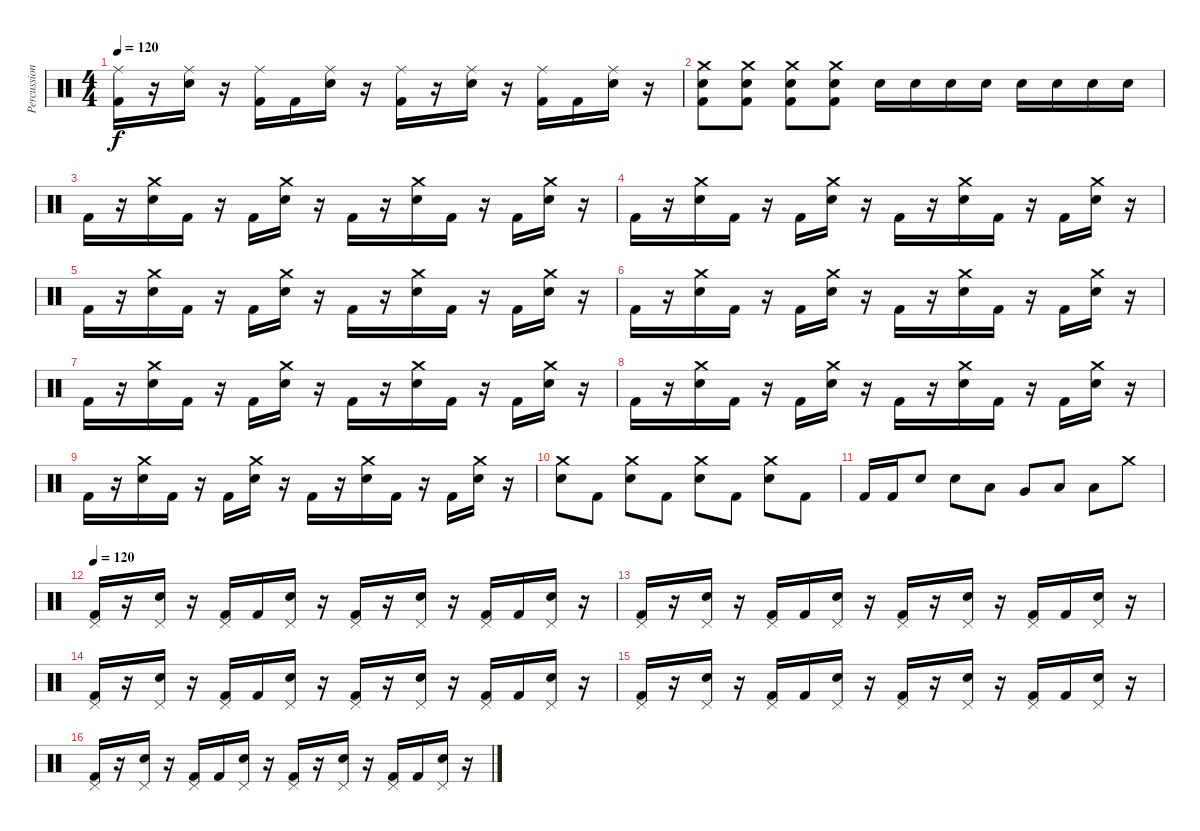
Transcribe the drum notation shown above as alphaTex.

\track ("Percussion" "Percussion") {instrument percussion}
\staff {score}
\articulation defaults
\ts (4 4)
\tempo 120
\clef neutral
\ks c
("Ride (middle)" "Kick (hit) 2").16{dy f} r.16 ("Ride (middle)" "Electric Snare (hit)").16 r.16 ("Ride (middle)" "Kick (hit) 2").16 "Kick (hit) 2".16 ("Ride (middle)" "Electric Snare (hit)").16 r.16 ("Ride (middle)" "Kick (hit) 2").16 r.16 ("Ride (middle)" "Electric Snare (hit)").16 r.16 ("Ride (middle)" "Kick (hit) 2").16 "Kick (hit) 2".16 ("Ride (middle)" "Electric Snare (hit)").16 r.16 |
("Crash medium (hit)" "Electric Snare (hit)" "Kick (hit) 2").8 ("Crash medium (hit)" "Electric Snare (hit)" "Kick (hit) 2").8 ("Crash medium (hit)" "Electric Snare (hit)" "Kick (hit) 2").8 ("Crash medium (hit)" "Electric Snare (hit)" "Kick (hit) 2").8 "Electric Snare (hit)".16 "Electric Snare (hit)".16 "Electric Snare (hit)".16 "Electric Snare (hit)".16 "Electric Snare (hit)".16 "Electric Snare (hit)".16 "Electric Snare (hit)".16 "Electric Snare (hit)".16 |
"Kick (hit) 2".16 r.16 ("Crash medium (hit)" "Electric Snare (hit)").16 "Kick (hit) 2".16 r.16 "Kick (hit) 2".16 ("Crash medium (hit)" "Electric Snare (hit)").16 r.16 "Kick (hit) 2".16 r.16 ("Crash medium (hit)" "Electric Snare (hit)").16 "Kick (hit) 2".16 r.16 "Kick (hit) 2".16 ("Crash medium (hit)" "Electric Snare (hit)").16 r.16 |
"Kick (hit) 2".16 r.16 ("Crash medium (hit)" "Electric Snare (hit)").16 "Kick (hit) 2".16 r.16 "Kick (hit) 2".16 ("Crash medium (hit)" "Electric Snare (hit)").16 r.16 "Kick (hit) 2".16 r.16 ("Crash medium (hit)" "Electric Snare (hit)").16 "Kick (hit) 2".16 r.16 "Kick (hit) 2".16 ("Crash medium (hit)" "Electric Snare (hit)").16 r.16 |
"Kick (hit) 2".16 r.16 ("Crash medium (hit)" "Electric Snare (hit)").16 "Kick (hit) 2".16 r.16 "Kick (hit) 2".16 ("Crash medium (hit)" "Electric Snare (hit)").16 r.16 "Kick (hit) 2".16 r.16 ("Crash medium (hit)" "Electric Snare (hit)").16 "Kick (hit) 2".16 r.16 "Kick (hit) 2".16 ("Crash medium (hit)" "Electric Snare (hit)").16 r.16 |
"Kick (hit) 2".16 r.16 ("Crash medium (hit)" "Electric Snare (hit)").16 "Kick (hit) 2".16 r.16 "Kick (hit) 2".16 ("Crash medium (hit)" "Electric Snare (hit)").16 r.16 "Kick (hit) 2".16 r.16 ("Crash medium (hit)" "Electric Snare (hit)").16 "Kick (hit) 2".16 r.16 "Kick (hit) 2".16 ("Crash medium (hit)" "Electric Snare (hit)").16 r.16 |
"Kick (hit) 2".16 r.16 ("Crash medium (hit)" "Electric Snare (hit)").16 "Kick (hit) 2".16 r.16 "Kick (hit) 2".16 ("Crash medium (hit)" "Electric Snare (hit)").16 r.16 "Kick (hit) 2".16 r.16 ("Crash medium (hit)" "Electric Snare (hit)").16 "Kick (hit) 2".16 r.16 "Kick (hit) 2".16 ("Crash medium (hit)" "Electric Snare (hit)").16 r.16 |
"Kick (hit) 2".16 r.16 ("Crash medium (hit)" "Electric Snare (hit)").16 "Kick (hit) 2".16 r.16 "Kick (hit) 2".16 ("Crash medium (hit)" "Electric Snare (hit)").16 r.16 "Kick (hit) 2".16 r.16 ("Crash medium (hit)" "Electric Snare (hit)").16 "Kick (hit) 2".16 r.16 "Kick (hit) 2".16 ("Crash medium (hit)" "Electric Snare (hit)").16 r.16 |
"Kick (hit) 2".16 r.16 ("Crash medium (hit)" "Electric Snare (hit)").16 "Kick (hit) 2".16 r.16 "Kick (hit) 2".16 ("Crash medium (hit)" "Electric Snare (hit)").16 r.16 "Kick (hit) 2".16 r.16 ("Crash medium (hit)" "Electric Snare (hit)").16 "Kick (hit) 2".16 r.16 "Kick (hit) 2".16 ("Crash medium (hit)" "Electric Snare (hit)").16 r.16 |
("Crash medium (hit)" "Electric Snare (hit)").8 "Kick (hit) 2".8 ("Crash medium (hit)" "Electric Snare (hit)").8 "Kick (hit) 2".8 ("Crash medium (hit)" "Electric Snare (hit)").8 "Kick (hit) 2".8 ("Crash medium (hit)" "Electric Snare (hit)").8 "Kick (hit) 2".8 |
"Kick (hit) 2".16 "Kick (hit) 2".16 "Electric Snare (hit)".8 "Electric Snare (hit)".8 "Low Tom (hit)".8 "Very Low Tom (hit)".8 "Low Floor Tom (hit)".8 "Low Floor Tom (hit)".8 "Crash medium (hit)".8 |
\tempo 120
("Pedal Hi-Hat (hit)" "Kick (hit) 2").16 r.16 ("Pedal Hi-Hat (hit)" "Electric Snare (hit)").16 r.16 ("Pedal Hi-Hat (hit)" "Kick (hit) 2").16 "Kick (hit) 2".16 ("Pedal Hi-Hat (hit)" "Electric Snare (hit)").16 r.16 ("Pedal Hi-Hat (hit)" "Kick (hit) 2").16 r.16 ("Pedal Hi-Hat (hit)" "Electric Snare (hit)").16 r.16 ("Pedal Hi-Hat (hit)" "Kick (hit) 2").16 "Kick (hit) 2".16 ("Pedal Hi-Hat (hit)" "Electric Snare (hit)").16 r.16 |
("Pedal Hi-Hat (hit)" "Kick (hit) 2").16 r.16 ("Pedal Hi-Hat (hit)" "Electric Snare (hit)").16 r.16 ("Pedal Hi-Hat (hit)" "Kick (hit) 2").16 "Kick (hit) 2".16 ("Pedal Hi-Hat (hit)" "Electric Snare (hit)").16 r.16 ("Pedal Hi-Hat (hit)" "Kick (hit) 2").16 r.16 ("Pedal Hi-Hat (hit)" "Electric Snare (hit)").16 r.16 ("Pedal Hi-Hat (hit)" "Kick (hit) 2").16 "Kick (hit) 2".16 ("Pedal Hi-Hat (hit)" "Electric Snare (hit)").16 r.16 |
("Pedal Hi-Hat (hit)" "Kick (hit) 2").16 r.16 ("Pedal Hi-Hat (hit)" "Electric Snare (hit)").16 r.16 ("Pedal Hi-Hat (hit)" "Kick (hit) 2").16 "Kick (hit) 2".16 ("Pedal Hi-Hat (hit)" "Electric Snare (hit)").16 r.16 ("Pedal Hi-Hat (hit)" "Kick (hit) 2").16 r.16 ("Pedal Hi-Hat (hit)" "Electric Snare (hit)").16 r.16 ("Pedal Hi-Hat (hit)" "Kick (hit) 2").16 "Kick (hit) 2".16 ("Pedal Hi-Hat (hit)" "Electric Snare (hit)").16 r.16 |
("Pedal Hi-Hat (hit)" "Kick (hit) 2").16 r.16 ("Pedal Hi-Hat (hit)" "Electric Snare (hit)").16 r.16 ("Pedal Hi-Hat (hit)" "Kick (hit) 2").16 "Kick (hit) 2".16 ("Pedal Hi-Hat (hit)" "Electric Snare (hit)").16 r.16 ("Pedal Hi-Hat (hit)" "Kick (hit) 2").16 r.16 ("Pedal Hi-Hat (hit)" "Electric Snare (hit)").16 r.16 ("Pedal Hi-Hat (hit)" "Kick (hit) 2").16 "Kick (hit) 2".16 ("Pedal Hi-Hat (hit)" "Electric Snare (hit)").16 r.16 |
("Pedal Hi-Hat (hit)" "Kick (hit) 2").16 r.16 ("Pedal Hi-Hat (hit)" "Electric Snare (hit)").16 r.16 ("Pedal Hi-Hat (hit)" "Kick (hit) 2").16 "Kick (hit) 2".16 ("Pedal Hi-Hat (hit)" "Electric Snare (hit)").16 r.16 ("Pedal Hi-Hat (hit)" "Kick (hit) 2").16 r.16 ("Pedal Hi-Hat (hit)" "Electric Snare (hit)").16 r.16 ("Pedal Hi-Hat (hit)" "Kick (hit) 2").16 "Kick (hit) 2".16 ("Pedal Hi-Hat (hit)" "Electric Snare (hit)").16 r.16
